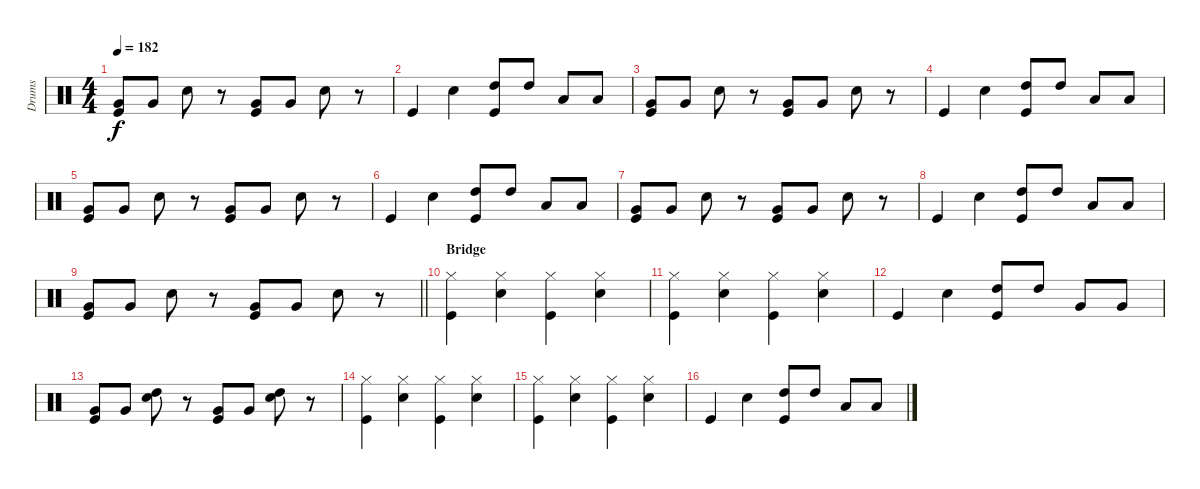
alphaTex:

\track ("Drums" "Drums") {instrument percussion}
\staff {score}
\articulation defaults
\ts (4 4)
\tempo 182
\clef neutral
\ks c
("Very Low Tom (hit)" "Kick (hit)").8{dy f} "Very Low Tom (hit)".8 "Snare (hit) 2".8 r.8 ("Very Low Tom (hit)" "Kick (hit)").8 "Very Low Tom (hit)".8 "Snare (hit) 2".8 r.8 |
"Kick (hit)".4 "Snare (hit) 2".4 ("High Tom (hit)" "Kick (hit)").8 "High Tom (hit)".8 "Low Tom (hit)".8 "Low Tom (hit)".8 |
("Very Low Tom (hit)" "Kick (hit)").8 "Very Low Tom (hit)".8 "Snare (hit) 2".8 r.8 ("Very Low Tom (hit)" "Kick (hit)").8 "Very Low Tom (hit)".8 "Snare (hit) 2".8 r.8 |
"Kick (hit)".4 "Snare (hit) 2".4 ("High Tom (hit)" "Kick (hit)").8 "High Tom (hit)".8 "Low Tom (hit)".8 "Low Tom (hit)".8 |
("Very Low Tom (hit)" "Kick (hit)").8 "Very Low Tom (hit)".8 "Snare (hit) 2".8 r.8 ("Very Low Tom (hit)" "Kick (hit)").8 "Very Low Tom (hit)".8 "Snare (hit) 2".8 r.8 |
"Kick (hit)".4 "Snare (hit) 2".4 ("High Tom (hit)" "Kick (hit)").8 "High Tom (hit)".8 "Low Tom (hit)".8 "Low Tom (hit)".8 |
("Very Low Tom (hit)" "Kick (hit)").8 "Very Low Tom (hit)".8 "Snare (hit) 2".8 r.8 ("Very Low Tom (hit)" "Kick (hit)").8 "Very Low Tom (hit)".8 "Snare (hit) 2".8 r.8 |
"Kick (hit)".4 "Snare (hit) 2".4 ("High Tom (hit)" "Kick (hit)").8 "High Tom (hit)".8 "Low Tom (hit)".8 "Low Tom (hit)".8 |
\barLineRight lightlight
("Very Low Tom (hit)" "Kick (hit)").8 "Very Low Tom (hit)".8 "Snare (hit) 2".8 r.8 ("Very Low Tom (hit)" "Kick (hit)").8 "Very Low Tom (hit)".8 "Snare (hit) 2".8 r.8 |
\section ("" "Bridge")
("Kick (hit)" "Hi-Hat (closed)").4 ("Snare (hit) 2" "Hi-Hat (closed)").4 ("Kick (hit)" "Hi-Hat (closed)").4 ("Snare (hit) 2" "Hi-Hat (closed)").4 |
("Kick (hit)" "Hi-Hat (closed)").4 ("Snare (hit) 2" "Hi-Hat (closed)").4 ("Kick (hit)" "Hi-Hat (closed)").4 ("Snare (hit) 2" "Hi-Hat (closed)").4 |
"Kick (hit)".4 "Snare (hit) 2".4 ("High Tom (hit)" "Kick (hit)").8 "High Tom (hit)".8 "Very Low Tom (hit)".8 "Very Low Tom (hit)".8 |
("Very Low Tom (hit)" "Kick (hit)").8 "Very Low Tom (hit)".8 ("Snare (hit) 2" "High Tom (hit)").8 r.8 ("Very Low Tom (hit)" "Kick (hit)").8 "Very Low Tom (hit)".8 ("Snare (hit) 2" "High Tom (hit)").8 r.8 |
("Kick (hit)" "Hi-Hat (closed)").4 ("Snare (hit) 2" "Hi-Hat (closed)").4 ("Kick (hit)" "Hi-Hat (closed)").4 ("Snare (hit) 2" "Hi-Hat (closed)").4 |
("Kick (hit)" "Hi-Hat (closed)").4 ("Snare (hit) 2" "Hi-Hat (closed)").4 ("Kick (hit)" "Hi-Hat (closed)").4 ("Snare (hit) 2" "Hi-Hat (closed)").4 |
"Kick (hit)".4 "Snare (hit) 2".4 ("High Tom (hit)" "Kick (hit)").8 "High Tom (hit)".8 "Low Tom (hit)".8 "Low Tom (hit)".8
